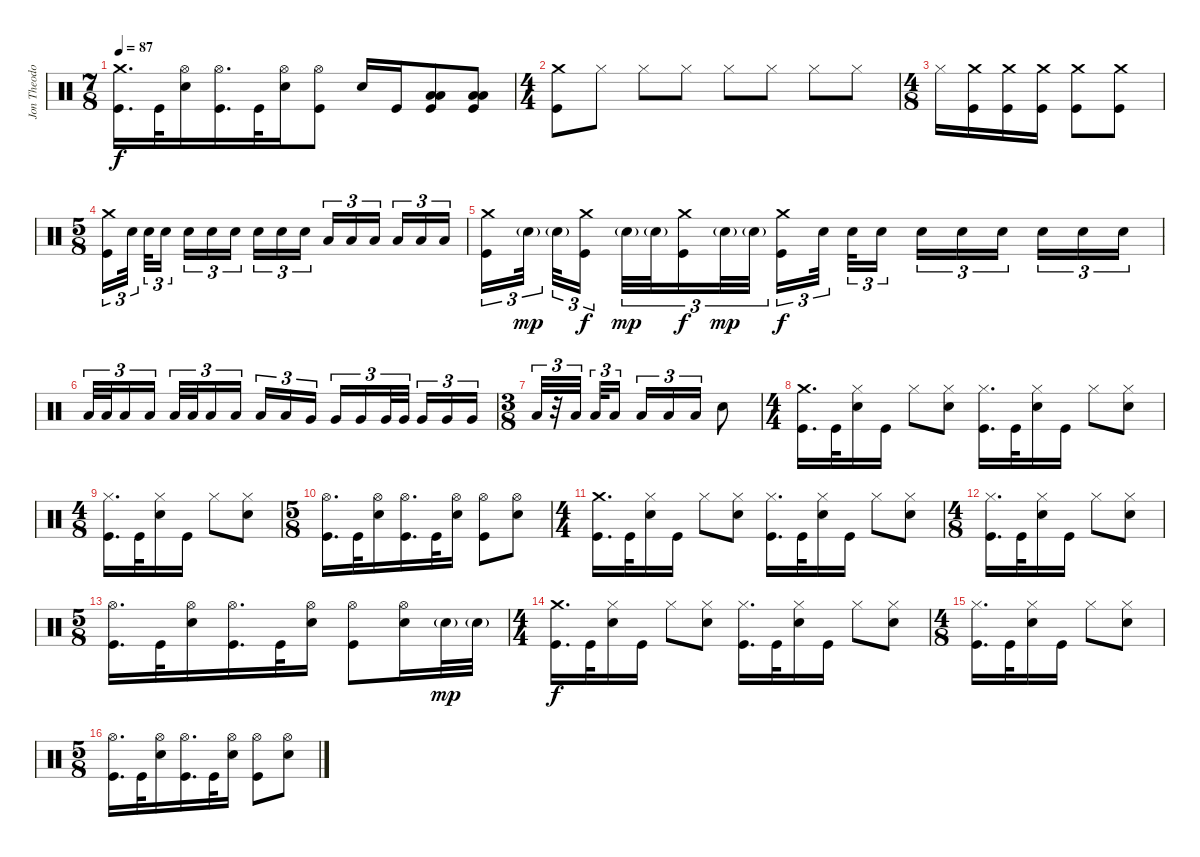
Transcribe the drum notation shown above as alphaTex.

\track ("Jon Theodore" "Jon Theodo") {instrument percussion}
\staff {score}
\articulation defaults
\ts (7 8)
\tempo 87
\clef neutral
\ks c
("Crash medium (hit)" "Kick (hit)").16{d dy f} "Kick (hit)".32 ("Hi-Hat (open)" "Snare (hit) 2").16 ("Hi-Hat (open)" "Kick (hit)").16{d} "Kick (hit)".32 ("Hi-Hat (open)" "Snare (hit) 2").16 ("Hi-Hat (open)" "Kick (hit)").8 "Snare (hit) 2".16 "Kick (hit)".16 ("Low Tom (hit)" "Low Floor Tom (hit)" "Kick (hit)").8 ("Low Tom (hit)" "Low Floor Tom (hit)" "Kick (hit)").8 |
\ts (4 4)
("Crash medium (hit)" "Kick (hit)").8 "Hi-Hat (closed)".8 "Hi-Hat (closed)".8 "Hi-Hat (closed)".8 "Hi-Hat (closed)".8 "Hi-Hat (closed)".8 "Hi-Hat (closed)".8 "Hi-Hat (closed)".8 |
\ts (4 8)
"Hi-Hat (closed)".16 ("Crash medium (hit)" "Kick (hit)").16 ("Crash medium (hit)" "Kick (hit)").16 ("Crash medium (hit)" "Kick (hit)").16 ("Crash medium (hit)" "Kick (hit)").8 ("Crash medium (hit)" "Kick (hit)").8 |
\ts (5 8)
("Crash medium (hit)" "Kick (hit)").16{tu (3 2)} "Snare (hit) 2".32{tu (3 2) beam splitsecondary} "Snare (hit) 2".32{tu (3 2)} "Snare (hit) 2".16{tu (3 2)} "Snare (hit) 2".16{tu (3 2)} "Snare (hit) 2".16{tu (3 2)} "Snare (hit) 2".16{tu (3 2)} "Snare (hit) 2".16{tu (3 2)} "Snare (hit) 2".16{tu (3 2)} "Snare (hit) 2".16{tu (3 2)} "Low Tom (hit)".16{tu (3 2)} "Low Tom (hit)".16{tu (3 2)} "Low Tom (hit)".16{tu (3 2)} "Low Tom (hit)".16{tu (3 2)} "Low Tom (hit)".16{tu (3 2)} "Low Tom (hit)".16{tu (3 2)} |
("Crash medium (hit)" "Kick (hit)").16{tu (3 2)} "Snare (hit) 2"{g}.32{tu (3 2) dy mp beam splitsecondary} "Snare (hit) 2"{g}.32{tu (3 2)} ("Crash medium (hit)" "Kick (hit)").16{tu (3 2) dy f} "Snare (hit) 2"{g}.32{tu (3 2) dy mp} "Snare (hit) 2"{g}.32{tu (3 2)} ("Crash medium (hit)" "Kick (hit)").16{tu (3 2) dy f} "Snare (hit) 2"{g}.32{tu (3 2) dy mp} "Snare (hit) 2"{g}.32{tu (3 2)} ("Crash medium (hit)" "Kick (hit)").16{tu (3 2) dy f} "Snare (hit) 2".32{tu (3 2) beam splitsecondary} "Snare (hit) 2".32{tu (3 2)} "Snare (hit) 2".16{tu (3 2)} "Snare (hit) 2".16{tu (3 2)} "Snare (hit) 2".16{tu (3 2)} "Snare (hit) 2".16{tu (3 2)} "Snare (hit) 2".16{tu (3 2)} "Snare (hit) 2".16{tu (3 2)} "Snare (hit) 2".16{tu (3 2)} |
"Low Tom (hit)".32{tu (3 2)} "Low Tom (hit)".32{tu (3 2)} "Low Tom (hit)".16{tu (3 2)} "Low Tom (hit)".16{tu (3 2)} "Low Tom (hit)".32{tu (3 2)} "Low Tom (hit)".32{tu (3 2)} "Low Tom (hit)".16{tu (3 2)} "Low Tom (hit)".16{tu (3 2)} "Low Tom (hit)".16{tu (3 2)} "Low Tom (hit)".16{tu (3 2)} "Very Low Tom (hit)".16{tu (3 2)} "Very Low Tom (hit)".16{tu (3 2)} "Very Low Tom (hit)".16{tu (3 2)} "Very Low Tom (hit)".32{tu (3 2)} "Very Low Tom (hit)".32{tu (3 2)} "Very Low Tom (hit)".16{tu (3 2)} "Very Low Tom (hit)".16{tu (3 2)} "Very Low Tom (hit)".16{tu (3 2)} |
\ts (3 8)
"Low Floor Tom (hit)".32{tu (3 2)} r.32{tu (3 2)} "Low Floor Tom (hit)".32{tu (3 2) beam splitsecondary} "Low Floor Tom (hit)".32{tu (3 2)} "Low Floor Tom (hit)".16{tu (3 2)} "Low Floor Tom (hit)".16{tu (3 2)} "Low Floor Tom (hit)".16{tu (3 2)} "Low Floor Tom (hit)".16{tu (3 2)} "Snare (hit) 2".8 |
\ts (4 4)
("Crash medium (hit)" "Kick (hit)").16{d} "Kick (hit)".32 ("Hi-Hat (closed)" "Snare (hit) 2").16 "Kick (hit)".16 "Hi-Hat (closed)".8 ("Hi-Hat (closed)" "Snare (hit) 2").8 ("Hi-Hat (closed)" "Kick (hit)").16{d} "Kick (hit)".32 ("Hi-Hat (closed)" "Snare (hit) 2").16 "Kick (hit)".16 "Hi-Hat (closed)".8 ("Hi-Hat (closed)" "Snare (hit) 2").8 |
\ts (4 8)
("Hi-Hat (closed)" "Kick (hit)").16{d} "Kick (hit)".32 ("Hi-Hat (closed)" "Snare (hit) 2").16 "Kick (hit)".16 "Hi-Hat (closed)".8 ("Hi-Hat (closed)" "Snare (hit) 2").8 |
\ts (5 8)
("Hi-Hat (open)" "Kick (hit)").16{d} "Kick (hit)".32 ("Hi-Hat (open)" "Snare (hit) 2").16 ("Hi-Hat (open)" "Kick (hit)").16{d} "Kick (hit)".32 ("Hi-Hat (open)" "Snare (hit) 2").16 ("Hi-Hat (open)" "Kick (hit)").8 ("Hi-Hat (open)" "Snare (hit) 2").8 |
\ts (4 4)
("Crash medium (hit)" "Kick (hit)").16{d} "Kick (hit)".32 ("Hi-Hat (closed)" "Snare (hit) 2").16 "Kick (hit)".16 "Hi-Hat (closed)".8 ("Hi-Hat (closed)" "Snare (hit) 2").8 ("Hi-Hat (closed)" "Kick (hit)").16{d} "Kick (hit)".32 ("Hi-Hat (closed)" "Snare (hit) 2").16 "Kick (hit)".16 "Hi-Hat (closed)".8 ("Hi-Hat (closed)" "Snare (hit) 2").8 |
\ts (4 8)
("Hi-Hat (closed)" "Kick (hit)").16{d} "Kick (hit)".32 ("Hi-Hat (closed)" "Snare (hit) 2").16 "Kick (hit)".16 "Hi-Hat (closed)".8 ("Hi-Hat (closed)" "Snare (hit) 2").8 |
\ts (5 8)
("Hi-Hat (open)" "Kick (hit)").16{d} "Kick (hit)".32 ("Hi-Hat (open)" "Snare (hit) 2").16 ("Hi-Hat (open)" "Kick (hit)").16{d} "Kick (hit)".32 ("Hi-Hat (open)" "Snare (hit) 2").16 ("Hi-Hat (open)" "Kick (hit)").8 ("Hi-Hat (open)" "Snare (hit) 2").16 "Snare (hit) 2"{g}.32{dy mp} "Snare (hit) 2"{g}.32 |
\ts (4 4)
("Crash medium (hit)" "Kick (hit)").16{d dy f} "Kick (hit)".32 ("Hi-Hat (closed)" "Snare (hit) 2").16 "Kick (hit)".16 "Hi-Hat (closed)".8 ("Hi-Hat (closed)" "Snare (hit) 2").8 ("Hi-Hat (closed)" "Kick (hit)").16{d} "Kick (hit)".32 ("Hi-Hat (closed)" "Snare (hit) 2").16 "Kick (hit)".16 "Hi-Hat (closed)".8 ("Hi-Hat (closed)" "Snare (hit) 2").8 |
\ts (4 8)
("Hi-Hat (closed)" "Kick (hit)").16{d} "Kick (hit)".32 ("Hi-Hat (closed)" "Snare (hit) 2").16 "Kick (hit)".16 "Hi-Hat (closed)".8 ("Hi-Hat (closed)" "Snare (hit) 2").8 |
\ts (5 8)
("Hi-Hat (open)" "Kick (hit)").16{d} "Kick (hit)".32 ("Hi-Hat (open)" "Snare (hit) 2").16 ("Hi-Hat (open)" "Kick (hit)").16{d} "Kick (hit)".32 ("Hi-Hat (open)" "Snare (hit) 2").16 ("Hi-Hat (open)" "Kick (hit)").8 ("Hi-Hat (open)" "Snare (hit) 2").8
